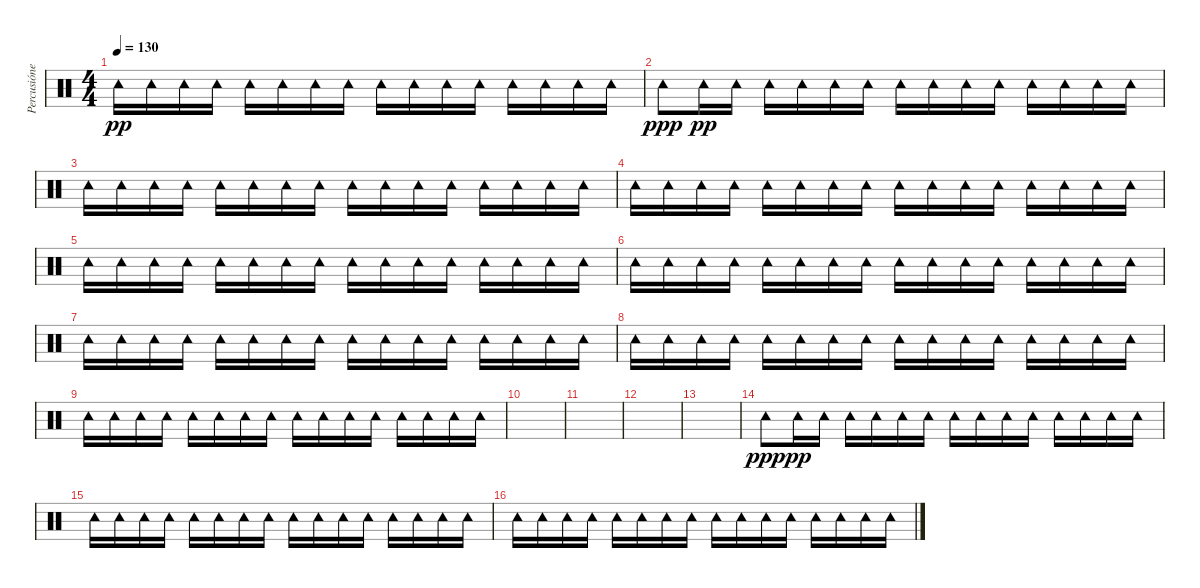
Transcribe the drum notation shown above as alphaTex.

\track ("Percusiónes" "Percusióne") {instrument percussion}
\staff {score}
\articulation defaults
\ts (4 4)
\tempo 130
\clef neutral
\ks c "Tambourine (hit)".16{dy pp} "Tambourine (hit)".16 "Tambourine (hit)".16 "Tambourine (hit)".16 "Tambourine (hit)".16 "Tambourine (hit)".16 "Tambourine (hit)".16 "Tambourine (hit)".16 "Tambourine (hit)".16 "Tambourine (hit)".16 "Tambourine (hit)".16 "Tambourine (hit)".16 "Tambourine (hit)".16 "Tambourine (hit)".16 "Tambourine (hit)".16 "Tambourine (hit)".16
|
"Tambourine (hit)".8{dy ppp} "Tambourine (hit)".16{dy pp} "Tambourine (hit)".16 "Tambourine (hit)".16 "Tambourine (hit)".16 "Tambourine (hit)".16 "Tambourine (hit)".16 "Tambourine (hit)".16 "Tambourine (hit)".16 "Tambourine (hit)".16 "Tambourine (hit)".16 "Tambourine (hit)".16 "Tambourine (hit)".16 "Tambourine (hit)".16 "Tambourine (hit)".16 |
"Tambourine (hit)".16 "Tambourine (hit)".16 "Tambourine (hit)".16 "Tambourine (hit)".16 "Tambourine (hit)".16 "Tambourine (hit)".16 "Tambourine (hit)".16 "Tambourine (hit)".16 "Tambourine (hit)".16 "Tambourine (hit)".16 "Tambourine (hit)".16 "Tambourine (hit)".16 "Tambourine (hit)".16 "Tambourine (hit)".16 "Tambourine (hit)".16 "Tambourine (hit)".16 |
"Tambourine (hit)".16 "Tambourine (hit)".16 "Tambourine (hit)".16 "Tambourine (hit)".16 "Tambourine (hit)".16 "Tambourine (hit)".16 "Tambourine (hit)".16 "Tambourine (hit)".16 "Tambourine (hit)".16 "Tambourine (hit)".16 "Tambourine (hit)".16 "Tambourine (hit)".16 "Tambourine (hit)".16 "Tambourine (hit)".16 "Tambourine (hit)".16 "Tambourine (hit)".16 |
"Tambourine (hit)".16 "Tambourine (hit)".16 "Tambourine (hit)".16 "Tambourine (hit)".16 "Tambourine (hit)".16 "Tambourine (hit)".16 "Tambourine (hit)".16 "Tambourine (hit)".16 "Tambourine (hit)".16 "Tambourine (hit)".16 "Tambourine (hit)".16 "Tambourine (hit)".16 "Tambourine (hit)".16 "Tambourine (hit)".16 "Tambourine (hit)".16 "Tambourine (hit)".16 |
"Tambourine (hit)".16 "Tambourine (hit)".16 "Tambourine (hit)".16 "Tambourine (hit)".16 "Tambourine (hit)".16 "Tambourine (hit)".16 "Tambourine (hit)".16 "Tambourine (hit)".16 "Tambourine (hit)".16 "Tambourine (hit)".16 "Tambourine (hit)".16 "Tambourine (hit)".16 "Tambourine (hit)".16 "Tambourine (hit)".16 "Tambourine (hit)".16 "Tambourine (hit)".16 |
"Tambourine (hit)".16 "Tambourine (hit)".16 "Tambourine (hit)".16 "Tambourine (hit)".16 "Tambourine (hit)".16 "Tambourine (hit)".16 "Tambourine (hit)".16 "Tambourine (hit)".16 "Tambourine (hit)".16 "Tambourine (hit)".16 "Tambourine (hit)".16 "Tambourine (hit)".16 "Tambourine (hit)".16 "Tambourine (hit)".16 "Tambourine (hit)".16 "Tambourine (hit)".16 |
"Tambourine (hit)".16 "Tambourine (hit)".16 "Tambourine (hit)".16 "Tambourine (hit)".16 "Tambourine (hit)".16 "Tambourine (hit)".16 "Tambourine (hit)".16 "Tambourine (hit)".16 "Tambourine (hit)".16 "Tambourine (hit)".16 "Tambourine (hit)".16 "Tambourine (hit)".16 "Tambourine (hit)".16 "Tambourine (hit)".16 "Tambourine (hit)".16 "Tambourine (hit)".16 |
"Tambourine (hit)".16 "Tambourine (hit)".16 "Tambourine (hit)".16 "Tambourine (hit)".16 "Tambourine (hit)".16 "Tambourine (hit)".16 "Tambourine (hit)".16 "Tambourine (hit)".16 "Tambourine (hit)".16 "Tambourine (hit)".16 "Tambourine (hit)".16 "Tambourine (hit)".16 "Tambourine (hit)".16 "Tambourine (hit)".16 "Tambourine (hit)".16 "Tambourine (hit)".16 |
|
|
|
|
"Tambourine (hit)".8{dy ppp} "Tambourine (hit)".16{dy pp} "Tambourine (hit)".16 "Tambourine (hit)".16 "Tambourine (hit)".16 "Tambourine (hit)".16 "Tambourine (hit)".16 "Tambourine (hit)".16 "Tambourine (hit)".16 "Tambourine (hit)".16 "Tambourine (hit)".16 "Tambourine (hit)".16 "Tambourine (hit)".16 "Tambourine (hit)".16 "Tambourine (hit)".16 |
"Tambourine (hit)".16 "Tambourine (hit)".16 "Tambourine (hit)".16 "Tambourine (hit)".16 "Tambourine (hit)".16 "Tambourine (hit)".16 "Tambourine (hit)".16 "Tambourine (hit)".16 "Tambourine (hit)".16 "Tambourine (hit)".16 "Tambourine (hit)".16 "Tambourine (hit)".16 "Tambourine (hit)".16 "Tambourine (hit)".16 "Tambourine (hit)".16 "Tambourine (hit)".16 |
"Tambourine (hit)".16 "Tambourine (hit)".16 "Tambourine (hit)".16 "Tambourine (hit)".16 "Tambourine (hit)".16 "Tambourine (hit)".16 "Tambourine (hit)".16 "Tambourine (hit)".16 "Tambourine (hit)".16 "Tambourine (hit)".16 "Tambourine (hit)".16 "Tambourine (hit)".16 "Tambourine (hit)".16 "Tambourine (hit)".16 "Tambourine (hit)".16 "Tambourine (hit)".16
